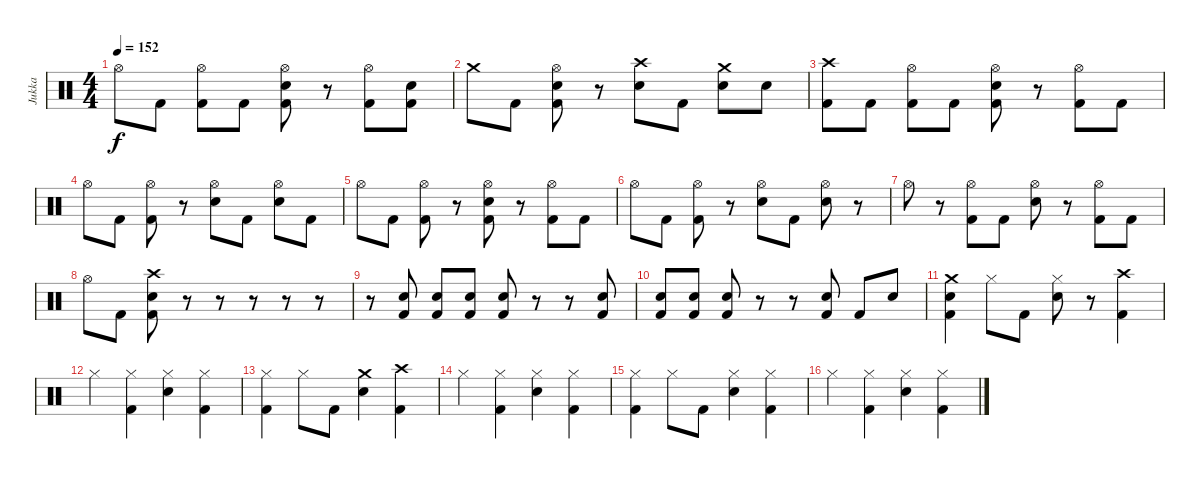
\track ("Jukka" "Jukka") {instrument percussion}
\staff {score}
\articulation defaults
\ts (4 4)
\tempo 152
\clef neutral
\ks c "Hi-Hat (open)".8{dy f} "Kick (hit) 2".8
("Hi-Hat (open)" "Kick (hit) 2").8 "Kick (hit) 2".8 ("Hi-Hat (open)" "Electric Snare (hit)" "Kick (hit) 2").8 r.8 ("Hi-Hat (open)" "Kick (hit) 2").8 ("Electric Snare (hit)" "Kick (hit) 2").8 |
"Crash medium (hit)".8 "Kick (hit) 2".8 ("Hi-Hat (open)" "Electric Snare (hit)" "Kick (hit) 2").8 r.8 ("Crash high (hit)" "Electric Snare (hit)").8 "Kick (hit) 2".8 ("Crash medium (hit)" "Electric Snare (hit)").8 "Electric Snare (hit)".8 |
("Crash high (hit)" "Kick (hit) 2").8 "Kick (hit) 2".8 ("Hi-Hat (open)" "Kick (hit) 2").8 "Kick (hit) 2".8 ("Hi-Hat (open)" "Electric Snare (hit)" "Kick (hit) 2").8 r.8 ("Hi-Hat (open)" "Kick (hit) 2").8 "Kick (hit) 2".8 |
"Hi-Hat (open)".8 "Kick (hit) 2".8 ("Hi-Hat (open)" "Kick (hit) 2").8 r.8 ("Hi-Hat (open)" "Electric Snare (hit)").8 "Kick (hit) 2".8 ("Hi-Hat (open)" "Electric Snare (hit)").8 "Kick (hit) 2".8 |
"Hi-Hat (open)".8 "Kick (hit) 2".8 ("Hi-Hat (open)" "Kick (hit) 2").8 r.8 ("Hi-Hat (open)" "Electric Snare (hit)" "Kick (hit) 2").8 r.8 ("Hi-Hat (open)" "Kick (hit) 2").8 "Kick (hit) 2".8 |
"Hi-Hat (open)".8 "Kick (hit) 2".8 ("Hi-Hat (open)" "Kick (hit) 2").8 r.8 ("Hi-Hat (open)" "Electric Snare (hit)").8 "Kick (hit) 2".8 ("Hi-Hat (open)" "Electric Snare (hit)").8 r.8 |
"Hi-Hat (open)".8 r.8 ("Hi-Hat (open)" "Kick (hit) 2").8 "Kick (hit) 2".8 ("Hi-Hat (open)" "Electric Snare (hit)").8 r.8 ("Hi-Hat (open)" "Kick (hit) 2").8 "Kick (hit) 2".8 |
"Hi-Hat (open)".8 "Kick (hit) 2".8 ("Crash high (hit)" "Electric Snare (hit)" "Kick (hit) 2").8 r.8 r.8 r.8 r.8 r.8 |
r.8 ("Electric Snare (hit)" "Kick (hit) 2").8 ("Electric Snare (hit)" "Kick (hit) 2").8 ("Electric Snare (hit)" "Kick (hit) 2").8 ("Electric Snare (hit)" "Kick (hit) 2").8 r.8 r.8 ("Electric Snare (hit)" "Kick (hit) 2").8 |
("Electric Snare (hit)" "Kick (hit) 2").8 ("Electric Snare (hit)" "Kick (hit) 2").8 ("Electric Snare (hit)" "Kick (hit) 2").8 r.8 r.8 ("Electric Snare (hit)" "Kick (hit) 2").8 "Kick (hit) 2".8 "Electric Snare (hit)".8 |
("Crash medium (hit)" "Electric Snare (hit)" "Kick (hit) 2").4 "Hi-Hat (closed)".8 "Kick (hit) 2".8 ("Hi-Hat (closed)" "Electric Snare (hit)").8 r.8 ("Crash high (hit)" "Kick (hit) 2").4 |
"Hi-Hat (closed)".4 ("Hi-Hat (closed)" "Kick (hit) 2").4 ("Hi-Hat (closed)" "Electric Snare (hit)").4 ("Hi-Hat (closed)" "Kick (hit) 2").4 |
("Hi-Hat (closed)" "Kick (hit) 2").4 "Hi-Hat (closed)".8 "Kick (hit) 2".8 ("Crash medium (hit)" "Electric Snare (hit)").4 ("Crash high (hit)" "Kick (hit) 2").4 |
"Hi-Hat (closed)".4 ("Hi-Hat (closed)" "Kick (hit) 2").4 ("Hi-Hat (closed)" "Electric Snare (hit)").4 ("Hi-Hat (closed)" "Kick (hit) 2").4 |
("Hi-Hat (closed)" "Kick (hit) 2").4 "Hi-Hat (closed)".8 "Kick (hit) 2".8 ("Hi-Hat (closed)" "Electric Snare (hit)").4 ("Hi-Hat (closed)" "Kick (hit) 2").4 |
"Hi-Hat (closed)".4 ("Hi-Hat (closed)" "Kick (hit) 2").4 ("Hi-Hat (closed)" "Electric Snare (hit)").4 ("Hi-Hat (closed)" "Kick (hit) 2").4
